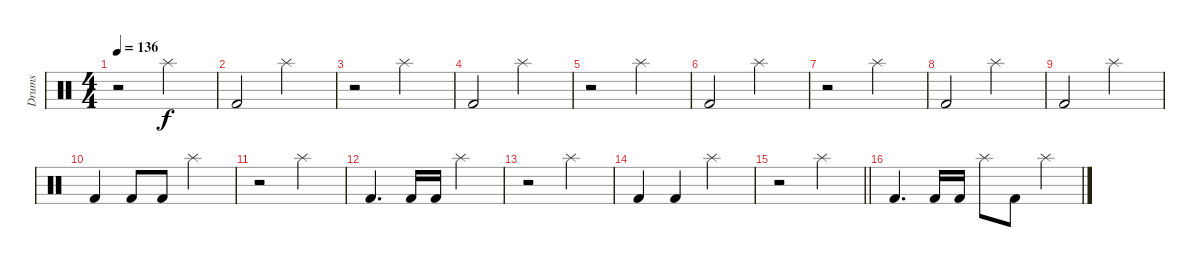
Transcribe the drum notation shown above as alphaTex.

\track ("Drums" "Drums") {instrument percussion}
\staff {score}
\articulation defaults
\ts (4 4)
\tempo 136
\clef neutral
\ks c
r.2{dy f} "Splash (hit)".2 |
"Kick (hit) 2".2 "Splash (hit)".2 |
r.2 "Splash (hit)".2 |
"Kick (hit) 2".2 "Splash (hit)".2 |
r.2 "Splash (hit)".2 |
"Kick (hit) 2".2 "Splash (hit)".2 |
r.2 "Splash (hit)".2 |
"Kick (hit) 2".2 "Splash (hit)".2 |
"Kick (hit) 2".2 "Splash (hit)".2 |
"Kick (hit) 2".4 "Kick (hit) 2".8 "Kick (hit) 2".8 "Splash (hit)".2 |
r.2 "Splash (hit)".2 |
"Kick (hit) 2".4{d} "Kick (hit) 2".16 "Kick (hit) 2".16 "Splash (hit)".2 |
r.2 "Splash (hit)".2 |
"Kick (hit) 2".4 "Kick (hit) 2".4 "Splash (hit)".2 |
\barLineRight lightlight
r.2 "Splash (hit)".2 |
"Kick (hit) 2".4{d} "Kick (hit) 2".16 "Kick (hit) 2".16 "Splash (hit)".8 "Kick (hit) 2".8 "Splash (hit)".4
